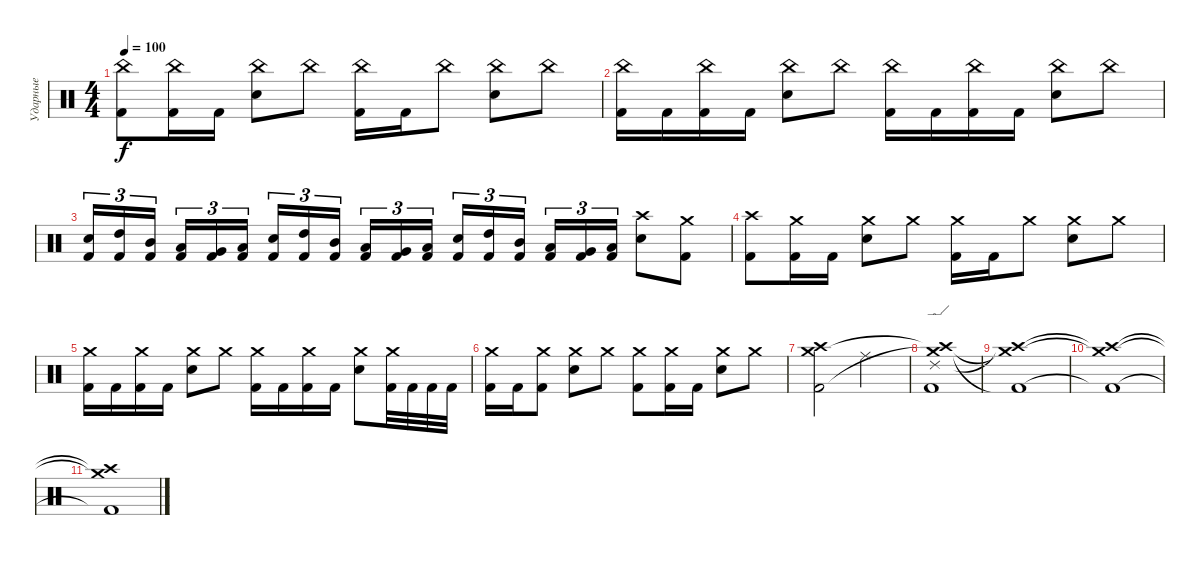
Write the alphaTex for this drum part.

\track ("Ударные" "Ударные") {instrument percussion}
\staff {score}
\articulation defaults
\ts (4 4)
\tempo 100
\clef neutral
\ks c
("China (hit)" "Kick (hit) 2").8{dy f} ("China (hit)" "Kick (hit) 2").16 "Kick (hit) 2".16 ("China (hit)" "Electric Snare (hit)").8 "China (hit)".8 ("China (hit)" "Kick (hit) 2").16 "Kick (hit) 2".16 "China (hit)".8 ("China (hit)" "Electric Snare (hit)").8 "China (hit)".8 |
("China (hit)" "Kick (hit) 2").16 "Kick (hit) 2".16 ("China (hit)" "Kick (hit) 2").16 "Kick (hit) 2".16 ("China (hit)" "Electric Snare (hit)").8 "China (hit)".8 ("China (hit)" "Kick (hit) 2").16 "Kick (hit) 2".16 ("China (hit)" "Kick (hit) 2").16 "Kick (hit) 2".16 ("China (hit)" "Electric Snare (hit)").8 "China (hit)".8 |
("Electric Snare (hit)" "Kick (hit) 2").16{tu (3 2)} ("High Tom (hit)" "Kick (hit) 2").16{tu (3 2)} ("Mid Tom (hit)" "Kick (hit) 2").16{tu (3 2) beam splitsecondary} ("Low Tom (hit)" "Kick (hit) 2").16{tu (3 2)} ("Very Low Tom (hit)" "Kick (hit) 2").16{tu (3 2)} ("Low Floor Tom (hit)" "Kick (hit) 2").16{tu (3 2)} ("Electric Snare (hit)" "Kick (hit) 2").16{tu (3 2)} ("High Tom (hit)" "Kick (hit) 2").16{tu (3 2)} ("Mid Tom (hit)" "Kick (hit) 2").16{tu (3 2) beam splitsecondary} ("Low Tom (hit)" "Kick (hit) 2").16{tu (3 2)} ("Very Low Tom (hit)" "Kick (hit) 2").16{tu (3 2)} ("Low Floor Tom (hit)" "Kick (hit) 2").16{tu (3 2)} ("Electric Snare (hit)" "Kick (hit) 2").16{tu (3 2)} ("High Tom (hit)" "Kick (hit) 2").16{tu (3 2)} ("Mid Tom (hit)" "Kick (hit) 2").16{tu (3 2) beam splitsecondary} ("Low Tom (hit)" "Kick (hit) 2").16{tu (3 2)} ("Very Low Tom (hit)" "Kick (hit) 2").16{tu (3 2)} ("Low Floor Tom (hit)" "Kick (hit) 2").16{tu (3 2)} ("Crash high (hit)" "Electric Snare (hit)").8 ("Crash medium (hit)" "Kick (hit) 2").8 |
("Crash high (hit)" "Kick (hit) 2").8 ("Crash medium (hit)" "Kick (hit) 2").16 "Kick (hit) 2".16 ("Crash medium (hit)" "Electric Snare (hit)").8 "Crash medium (hit)".8 ("Crash medium (hit)" "Kick (hit) 2").16 "Kick (hit) 2".16 "Crash medium (hit)".8 ("Crash medium (hit)" "Electric Snare (hit)").8 "Crash medium (hit)".8 |
("Crash medium (hit)" "Kick (hit) 2").16 "Kick (hit) 2".16 ("Crash medium (hit)" "Kick (hit) 2").16 "Kick (hit) 2".16 ("Crash medium (hit)" "Electric Snare (hit)").8 "Crash medium (hit)".8 ("Crash medium (hit)" "Kick (hit) 2").16 "Kick (hit) 2".16 ("Crash medium (hit)" "Kick (hit) 2").16 "Kick (hit) 2".16 ("Crash medium (hit)" "Electric Snare (hit)").8 ("Crash medium (hit)" "Kick (hit) 2").32 "Kick (hit) 2".32 "Kick (hit) 2".32 "Kick (hit) 2".32 |
("Crash medium (hit)" "Kick (hit) 2").16 "Kick (hit) 2".16 ("Crash medium (hit)" "Kick (hit) 2").8 ("Crash medium (hit)" "Electric Snare (hit)").8 "Crash medium (hit)".8 ("Crash medium (hit)" "Kick (hit) 2").8 ("Crash medium (hit)" "Kick (hit) 2").16 "Kick (hit) 2".16 ("Crash medium (hit)" "Electric Snare (hit)").8 "Crash medium (hit)".8 |
("Crash high (hit)" "Crash medium (hit)" "Kick (hit) 2").2 "Ride (middle)".2 |
("Ride (edge) 2" "Crash high (hit)"{t} "Crash medium (hit)"{t} "Kick (hit) 2").1 |
("Crash high (hit)"{t} "Crash medium (hit)"{t} "Kick (hit) 2"{t}).1 |
("Crash high (hit)"{t} "Crash medium (hit)"{t} "Kick (hit) 2"{t}).1 |
("Crash high (hit)"{t} "Crash medium (hit)"{t} "Kick (hit) 2"{t}).1
